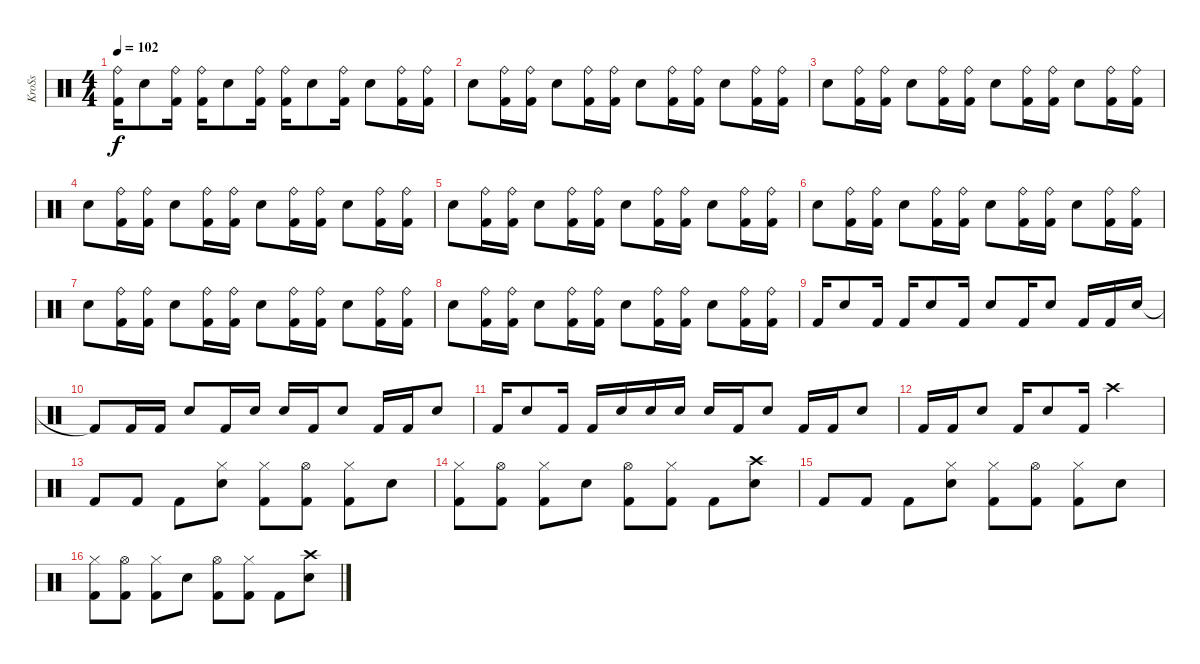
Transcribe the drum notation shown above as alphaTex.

\track ("KroSs" "KroSs") {instrument percussion}
\staff {score}
\articulation defaults
\ts (4 4)
\tempo 102
\clef neutral
\ks c
("Ride (bell)" "Kick (hit) 2").16{dy f} "Snare (hit) 2".8 ("Ride (bell)" "Kick (hit) 2").16 ("Ride (bell)" "Kick (hit) 2").16 "Snare (hit) 2".8 ("Ride (bell)" "Kick (hit) 2").16 ("Ride (bell)" "Kick (hit) 2").16 "Snare (hit) 2".8 ("Ride (bell)" "Kick (hit) 2").16 "Snare (hit) 2".8 ("Ride (bell)" "Kick (hit) 2").16 ("Ride (bell)" "Kick (hit) 2").16 |
"Snare (hit) 2".8 ("Ride (bell)" "Kick (hit) 2").16 ("Ride (bell)" "Kick (hit) 2").16 "Snare (hit) 2".8 ("Ride (bell)" "Kick (hit) 2").16 ("Ride (bell)" "Kick (hit) 2").16 "Snare (hit) 2".8 ("Ride (bell)" "Kick (hit) 2").16 ("Ride (bell)" "Kick (hit) 2").16 "Snare (hit) 2".8 ("Ride (bell)" "Kick (hit) 2").16 ("Ride (bell)" "Kick (hit) 2").16 |
"Snare (hit) 2".8 ("Ride (bell)" "Kick (hit) 2").16 ("Ride (bell)" "Kick (hit) 2").16 "Snare (hit) 2".8 ("Ride (bell)" "Kick (hit) 2").16 ("Ride (bell)" "Kick (hit) 2").16 "Snare (hit) 2".8 ("Ride (bell)" "Kick (hit) 2").16 ("Ride (bell)" "Kick (hit) 2").16 "Snare (hit) 2".8 ("Ride (bell)" "Kick (hit) 2").16 ("Ride (bell)" "Kick (hit) 2").16 |
"Snare (hit) 2".8 ("Ride (bell)" "Kick (hit) 2").16 ("Ride (bell)" "Kick (hit) 2").16 "Snare (hit) 2".8 ("Ride (bell)" "Kick (hit) 2").16 ("Ride (bell)" "Kick (hit) 2").16 "Snare (hit) 2".8 ("Ride (bell)" "Kick (hit) 2").16 ("Ride (bell)" "Kick (hit) 2").16 "Snare (hit) 2".8 ("Ride (bell)" "Kick (hit) 2").16 ("Ride (bell)" "Kick (hit) 2").16 |
"Snare (hit) 2".8 ("Ride (bell)" "Kick (hit) 2").16 ("Ride (bell)" "Kick (hit) 2").16 "Snare (hit) 2".8 ("Ride (bell)" "Kick (hit) 2").16 ("Ride (bell)" "Kick (hit) 2").16 "Snare (hit) 2".8 ("Ride (bell)" "Kick (hit) 2").16 ("Ride (bell)" "Kick (hit) 2").16 "Snare (hit) 2".8 ("Ride (bell)" "Kick (hit) 2").16 ("Ride (bell)" "Kick (hit) 2").16 |
"Snare (hit) 2".8 ("Ride (bell)" "Kick (hit) 2").16 ("Ride (bell)" "Kick (hit) 2").16 "Snare (hit) 2".8 ("Ride (bell)" "Kick (hit) 2").16 ("Ride (bell)" "Kick (hit) 2").16 "Snare (hit) 2".8 ("Ride (bell)" "Kick (hit) 2").16 ("Ride (bell)" "Kick (hit) 2").16 "Snare (hit) 2".8 ("Ride (bell)" "Kick (hit) 2").16 ("Ride (bell)" "Kick (hit) 2").16 |
"Snare (hit) 2".8 ("Ride (bell)" "Kick (hit) 2").16 ("Ride (bell)" "Kick (hit) 2").16 "Snare (hit) 2".8 ("Ride (bell)" "Kick (hit) 2").16 ("Ride (bell)" "Kick (hit) 2").16 "Snare (hit) 2".8 ("Ride (bell)" "Kick (hit) 2").16 ("Ride (bell)" "Kick (hit) 2").16 "Snare (hit) 2".8 ("Ride (bell)" "Kick (hit) 2").16 ("Ride (bell)" "Kick (hit) 2").16 |
"Snare (hit) 2".8 ("Ride (bell)" "Kick (hit) 2").16 ("Ride (bell)" "Kick (hit) 2").16 "Snare (hit) 2".8 ("Ride (bell)" "Kick (hit) 2").16 ("Ride (bell)" "Kick (hit) 2").16 "Snare (hit) 2".8 ("Ride (bell)" "Kick (hit) 2").16 ("Ride (bell)" "Kick (hit) 2").16 "Snare (hit) 2".8 ("Ride (bell)" "Kick (hit) 2").16 ("Ride (bell)" "Kick (hit) 2").16 |
"Kick (hit) 2".16 "Snare (hit) 2".8 "Kick (hit) 2".16 "Kick (hit) 2".16 "Snare (hit) 2".8 "Kick (hit) 2".16 "Snare (hit) 2".8 "Kick (hit) 2".16 "Snare (hit) 2".8 "Kick (hit) 2".16 "Kick (hit) 2".16 "Snare (hit) 2".16 |
"Kick (hit) 2"{t}.8 "Kick (hit) 2".16 "Kick (hit) 2".16 "Snare (hit) 2".8 "Kick (hit) 2".16 "Snare (hit) 2".16 "Snare (hit) 2".16 "Kick (hit) 2".16 "Snare (hit) 2".8 "Kick (hit) 2".16 "Kick (hit) 2".16 "Snare (hit) 2".8 |
"Kick (hit) 2".16 "Snare (hit) 2".8 "Kick (hit) 2".16 "Kick (hit) 2".16 "Snare (hit) 2".16 "Snare (hit) 2".16 "Snare (hit) 2".16 "Snare (hit) 2".16 "Kick (hit) 2".16 "Snare (hit) 2".8 "Kick (hit) 2".16 "Kick (hit) 2".16 "Snare (hit) 2".8 |
"Kick (hit) 2".16 "Kick (hit) 2".16 "Snare (hit) 2".8 "Kick (hit) 2".16 "Snare (hit) 2".8 "Kick (hit) 2".16 "Crash high (hit)".2 |
"Kick (hit) 2".8 "Kick (hit) 2".8 "Kick (hit) 2".8 ("Hi-Hat (closed)" "Snare (hit) 2").8 ("Hi-Hat (closed)" "Kick (hit) 2").8 ("Hi-Hat (open)" "Kick (hit) 2").8 ("Hi-Hat (closed)" "Kick (hit) 2").8 "Snare (hit) 2".8 |
("Hi-Hat (closed)" "Kick (hit) 2").8 ("Hi-Hat (open)" "Kick (hit) 2").8 ("Hi-Hat (closed)" "Kick (hit) 2").8 "Snare (hit) 2".8 ("Hi-Hat (open)" "Kick (hit) 2").8 ("Hi-Hat (closed)" "Kick (hit) 2").8 "Kick (hit) 2".8 ("Crash high (hit)" "Snare (hit) 2").8 |
"Kick (hit) 2".8 "Kick (hit) 2".8 "Kick (hit) 2".8 ("Hi-Hat (closed)" "Snare (hit) 2").8 ("Hi-Hat (closed)" "Kick (hit) 2").8 ("Hi-Hat (open)" "Kick (hit) 2").8 ("Hi-Hat (closed)" "Kick (hit) 2").8 "Snare (hit) 2".8 |
("Hi-Hat (closed)" "Kick (hit) 2").8 ("Hi-Hat (open)" "Kick (hit) 2").8 ("Hi-Hat (closed)" "Kick (hit) 2").8 "Snare (hit) 2".8 ("Hi-Hat (open)" "Kick (hit) 2").8 ("Hi-Hat (closed)" "Kick (hit) 2").8 "Kick (hit) 2".8 ("Crash high (hit)" "Snare (hit) 2").8
